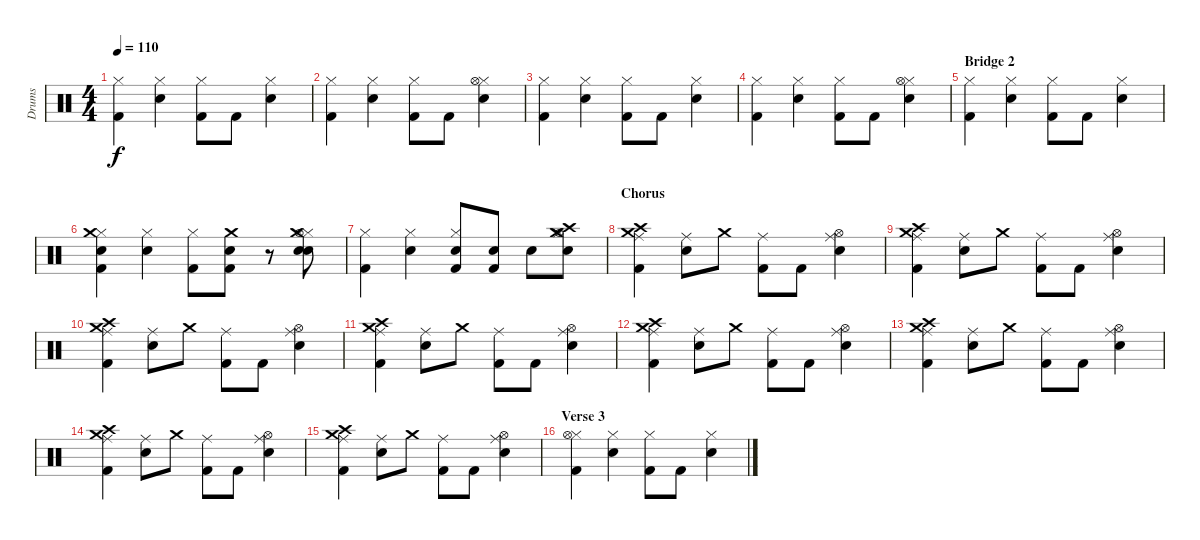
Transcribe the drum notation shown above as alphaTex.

\track ("Drums" "Drums") {instrument percussion}
\staff {score}
\articulation defaults
\ts (4 4)
\tempo 110
\clef neutral
\ks c
("Kick (hit) 2" "Hi-Hat (closed)").4{dy f} ("Snare (hit) 2" "Hi-Hat (closed)").4 ("Kick (hit) 2" "Hi-Hat (closed)").8 "Kick (hit) 2".8 ("Snare (hit) 2" "Hi-Hat (closed)").4 |
("Kick (hit) 2" "Hi-Hat (closed)").4 ("Snare (hit) 2" "Hi-Hat (closed)").4 ("Kick (hit) 2" "Hi-Hat (closed)").8 "Kick (hit) 2".8 ("Snare (hit) 2" "Hi-Hat (closed)" "Hi-Hat (open)").4 |
("Kick (hit) 2" "Hi-Hat (closed)").4 ("Snare (hit) 2" "Hi-Hat (closed)").4 ("Kick (hit) 2" "Hi-Hat (closed)").8 "Kick (hit) 2".8 ("Snare (hit) 2" "Hi-Hat (closed)").4 |
("Kick (hit) 2" "Hi-Hat (closed)").4 ("Snare (hit) 2" "Hi-Hat (closed)").4 ("Kick (hit) 2" "Hi-Hat (closed)").8 "Kick (hit) 2".8 ("Snare (hit) 2" "Hi-Hat (closed)" "Hi-Hat (open)").4 |
\section ("" "Bridge 2")
("Kick (hit) 2" "Hi-Hat (closed)").4 ("Snare (hit) 2" "Hi-Hat (closed)").4 ("Kick (hit) 2" "Hi-Hat (closed)").8 "Kick (hit) 2".8 ("Snare (hit) 2" "Hi-Hat (closed)").4 |
("Kick (hit) 2" "Hi-Hat (closed)" "Snare (hit) 2" "Crash medium (hit)").4 ("Snare (hit) 2" "Hi-Hat (closed)").4 ("Kick (hit) 2" "Hi-Hat (closed)").8 ("Kick (hit) 2" "Snare (hit) 2" "Crash medium (hit)").8 r.8 ("Snare (hit) 2" "Hi-Hat (closed)" "Snare (hit) 2" "Crash medium (hit)" "Hi-Hat (open)").8 |
("Kick (hit) 2" "Hi-Hat (closed)").4 ("Snare (hit) 2" "Hi-Hat (closed)").4 ("Kick (hit) 2" "Hi-Hat (closed)" "Snare (hit) 2").8 ("Kick (hit) 2" "Snare (hit) 2").8 "Snare (hit) 2".8 ("Snare (hit) 2" "Hi-Hat (closed)" "Crash high (hit)" "Crash medium (hit)" "Hi-Hat (open)").8 |
\section ("" "Chorus")
("Kick (hit) 2" "Ride (middle)" "Crash high (hit)" "Crash medium (hit)").4 ("Snare (hit) 2" "Ride (middle)").8 "Crash medium (hit)".8 ("Kick (hit) 2" "Ride (middle)").8 "Kick (hit) 2".8 ("Snare (hit) 2" "Ride (middle)" "Hi-Hat (open)").4 |
("Kick (hit) 2" "Ride (middle)" "Crash high (hit)" "Crash medium (hit)").4 ("Snare (hit) 2" "Ride (middle)").8 "Crash medium (hit)".8 ("Kick (hit) 2" "Ride (middle)").8 "Kick (hit) 2".8 ("Snare (hit) 2" "Ride (middle)" "Hi-Hat (open)").4 |
("Kick (hit) 2" "Ride (middle)" "Crash high (hit)" "Crash medium (hit)").4 ("Snare (hit) 2" "Ride (middle)").8 "Crash medium (hit)".8 ("Kick (hit) 2" "Ride (middle)").8 "Kick (hit) 2".8 ("Snare (hit) 2" "Ride (middle)" "Hi-Hat (open)").4 |
("Kick (hit) 2" "Ride (middle)" "Crash high (hit)" "Crash medium (hit)").4 ("Snare (hit) 2" "Ride (middle)").8 "Crash medium (hit)".8 ("Kick (hit) 2" "Ride (middle)").8 "Kick (hit) 2".8 ("Snare (hit) 2" "Ride (middle)" "Hi-Hat (open)").4 |
("Kick (hit) 2" "Ride (middle)" "Crash high (hit)" "Crash medium (hit)").4 ("Snare (hit) 2" "Ride (middle)").8 "Crash medium (hit)".8 ("Kick (hit) 2" "Ride (middle)").8 "Kick (hit) 2".8 ("Snare (hit) 2" "Ride (middle)" "Hi-Hat (open)").4 |
("Kick (hit) 2" "Ride (middle)" "Crash high (hit)" "Crash medium (hit)").4 ("Snare (hit) 2" "Ride (middle)").8 "Crash medium (hit)".8 ("Kick (hit) 2" "Ride (middle)").8 "Kick (hit) 2".8 ("Snare (hit) 2" "Ride (middle)" "Hi-Hat (open)").4 |
("Kick (hit) 2" "Ride (middle)" "Crash high (hit)" "Crash medium (hit)").4 ("Snare (hit) 2" "Ride (middle)").8 "Crash medium (hit)".8 ("Kick (hit) 2" "Ride (middle)").8 "Kick (hit) 2".8 ("Snare (hit) 2" "Ride (middle)" "Hi-Hat (open)").4 |
("Kick (hit) 2" "Ride (middle)" "Crash high (hit)" "Crash medium (hit)").4 ("Snare (hit) 2" "Ride (middle)").8 "Crash medium (hit)".8 ("Kick (hit) 2" "Ride (middle)").8 "Kick (hit) 2".8 ("Snare (hit) 2" "Ride (middle)" "Hi-Hat (open)").4 |
\section ("" "Verse 3")
("Kick (hit) 2" "Hi-Hat (closed)" "Hi-Hat (open)").4 ("Snare (hit) 2" "Hi-Hat (closed)").4 ("Kick (hit) 2" "Hi-Hat (closed)").8 "Kick (hit) 2".8 ("Snare (hit) 2" "Hi-Hat (closed)").4
